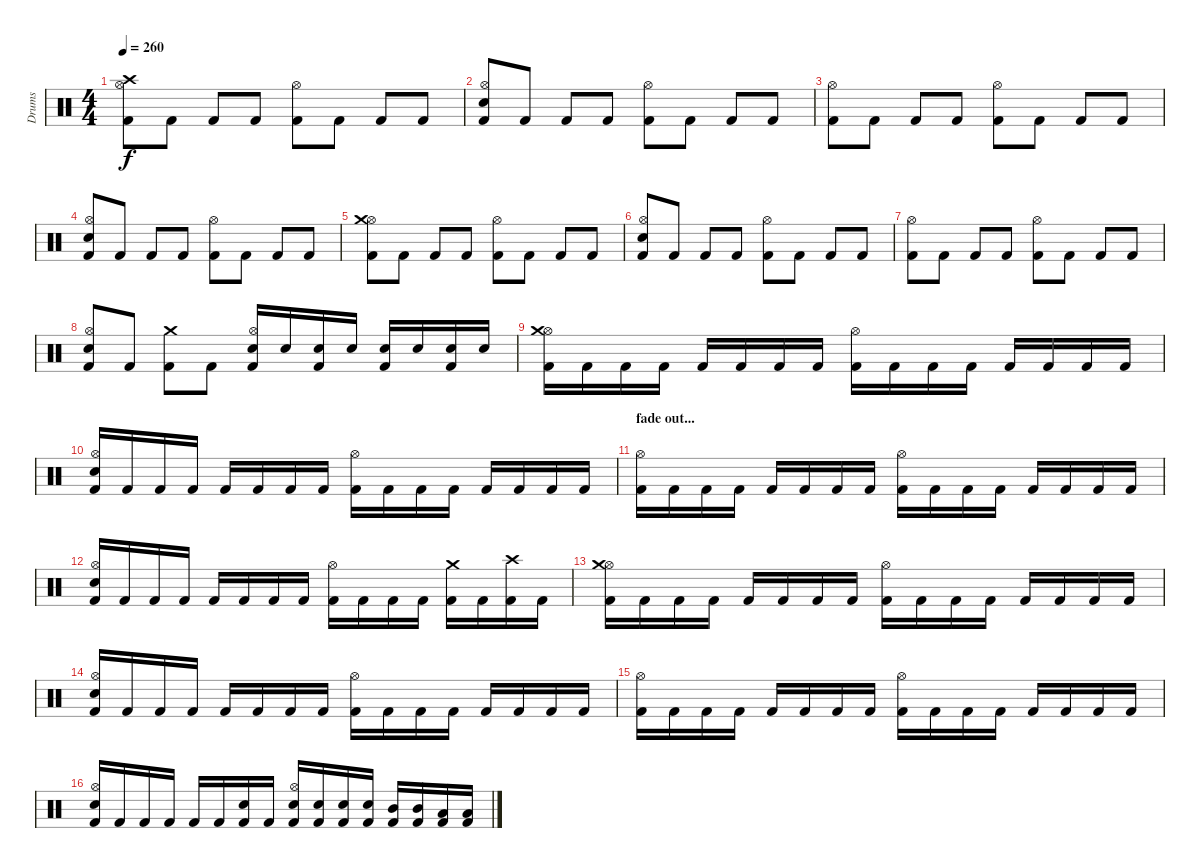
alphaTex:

\track ("Drums" "Drums") {instrument percussion}
\staff {score}
\articulation defaults
\ts (4 4)
\tempo 260
\clef neutral
\ks c
("Kick (hit) 2" "Hi-Hat (open)" "Crash high (hit)").8{dy f} "Kick (hit) 2".8 "Kick (hit) 2".8 "Kick (hit) 2".8 ("Kick (hit) 2" "Hi-Hat (open)").8 "Kick (hit) 2".8 "Kick (hit) 2".8 "Kick (hit) 2".8 |
("Kick (hit) 2" "Electric Snare (hit)" "Hi-Hat (open)").8 "Kick (hit) 2".8 "Kick (hit) 2".8 "Kick (hit) 2".8 ("Kick (hit) 2" "Hi-Hat (open)").8 "Kick (hit) 2".8 "Kick (hit) 2".8 "Kick (hit) 2".8 |
("Kick (hit) 2" "Hi-Hat (open)").8 "Kick (hit) 2".8 "Kick (hit) 2".8 "Kick (hit) 2".8 ("Kick (hit) 2" "Hi-Hat (open)").8 "Kick (hit) 2".8 "Kick (hit) 2".8 "Kick (hit) 2".8 |
("Kick (hit) 2" "Electric Snare (hit)" "Hi-Hat (open)").8 "Kick (hit) 2".8 "Kick (hit) 2".8 "Kick (hit) 2".8 ("Kick (hit) 2" "Hi-Hat (open)").8 "Kick (hit) 2".8 "Kick (hit) 2".8 "Kick (hit) 2".8 |
("Kick (hit) 2" "Hi-Hat (open)" "Crash medium (hit)").8 "Kick (hit) 2".8 "Kick (hit) 2".8 "Kick (hit) 2".8 ("Kick (hit) 2" "Hi-Hat (open)").8 "Kick (hit) 2".8 "Kick (hit) 2".8 "Kick (hit) 2".8 |
("Kick (hit) 2" "Electric Snare (hit)" "Hi-Hat (open)").8 "Kick (hit) 2".8 "Kick (hit) 2".8 "Kick (hit) 2".8 ("Kick (hit) 2" "Hi-Hat (open)").8 "Kick (hit) 2".8 "Kick (hit) 2".8 "Kick (hit) 2".8 |
("Kick (hit) 2" "Hi-Hat (open)").8 "Kick (hit) 2".8 "Kick (hit) 2".8 "Kick (hit) 2".8 ("Kick (hit) 2" "Hi-Hat (open)").8 "Kick (hit) 2".8 "Kick (hit) 2".8 "Kick (hit) 2".8 |
("Kick (hit) 2" "Electric Snare (hit)" "Hi-Hat (open)").8 "Kick (hit) 2".8 ("Kick (hit) 2" "Crash medium (hit)").8 "Kick (hit) 2".8 ("Kick (hit) 2" "Electric Snare (hit)" "Hi-Hat (open)").16 "Electric Snare (hit)".16 ("Kick (hit) 2" "Electric Snare (hit)").16 "Electric Snare (hit)".16 ("Kick (hit) 2" "Electric Snare (hit)").16 "Electric Snare (hit)".16 ("Kick (hit) 2" "Electric Snare (hit)").16 "Electric Snare (hit)".16 |
("Kick (hit) 2" "Hi-Hat (open)" "Crash medium (hit)").16 "Kick (hit) 2".16 "Kick (hit) 2".16 "Kick (hit) 2".16 "Kick (hit) 2".16 "Kick (hit) 2".16 "Kick (hit) 2".16 "Kick (hit) 2".16 ("Kick (hit) 2" "Hi-Hat (open)").16 "Kick (hit) 2".16 "Kick (hit) 2".16 "Kick (hit) 2".16 "Kick (hit) 2".16 "Kick (hit) 2".16 "Kick (hit) 2".16 "Kick (hit) 2".16 |
("Kick (hit) 2" "Electric Snare (hit)" "Hi-Hat (open)").16 "Kick (hit) 2".16 "Kick (hit) 2".16 "Kick (hit) 2".16 "Kick (hit) 2".16 "Kick (hit) 2".16 "Kick (hit) 2".16 "Kick (hit) 2".16 ("Kick (hit) 2" "Hi-Hat (open)").16 "Kick (hit) 2".16 "Kick (hit) 2".16 "Kick (hit) 2".16 "Kick (hit) 2".16 "Kick (hit) 2".16 "Kick (hit) 2".16 "Kick (hit) 2".16 |
\section ("" "fade out...")
("Kick (hit) 2" "Hi-Hat (open)").16 "Kick (hit) 2".16 "Kick (hit) 2".16 "Kick (hit) 2".16 "Kick (hit) 2".16 "Kick (hit) 2".16 "Kick (hit) 2".16 "Kick (hit) 2".16 ("Kick (hit) 2" "Hi-Hat (open)").16 "Kick (hit) 2".16 "Kick (hit) 2".16 "Kick (hit) 2".16 "Kick (hit) 2".16 "Kick (hit) 2".16 "Kick (hit) 2".16 "Kick (hit) 2".16 |
("Kick (hit) 2" "Electric Snare (hit)" "Hi-Hat (open)").16 "Kick (hit) 2".16 "Kick (hit) 2".16 "Kick (hit) 2".16 "Kick (hit) 2".16 "Kick (hit) 2".16 "Kick (hit) 2".16 "Kick (hit) 2".16 ("Kick (hit) 2" "Hi-Hat (open)").16 "Kick (hit) 2".16 "Kick (hit) 2".16 "Kick (hit) 2".16 ("Kick (hit) 2" "Crash medium (hit)").16 "Kick (hit) 2".16 ("Kick (hit) 2" "Crash high (hit)").16 "Kick (hit) 2".16 |
("Kick (hit) 2" "Hi-Hat (open)" "Crash medium (hit)").16 "Kick (hit) 2".16 "Kick (hit) 2".16 "Kick (hit) 2".16 "Kick (hit) 2".16 "Kick (hit) 2".16 "Kick (hit) 2".16 "Kick (hit) 2".16 ("Kick (hit) 2" "Hi-Hat (open)").16 "Kick (hit) 2".16 "Kick (hit) 2".16 "Kick (hit) 2".16 "Kick (hit) 2".16 "Kick (hit) 2".16 "Kick (hit) 2".16 "Kick (hit) 2".16 |
("Kick (hit) 2" "Electric Snare (hit)" "Hi-Hat (open)").16 "Kick (hit) 2".16 "Kick (hit) 2".16 "Kick (hit) 2".16 "Kick (hit) 2".16 "Kick (hit) 2".16 "Kick (hit) 2".16 "Kick (hit) 2".16 ("Kick (hit) 2" "Hi-Hat (open)").16 "Kick (hit) 2".16 "Kick (hit) 2".16 "Kick (hit) 2".16 "Kick (hit) 2".16 "Kick (hit) 2".16 "Kick (hit) 2".16 "Kick (hit) 2".16 |
("Kick (hit) 2" "Hi-Hat (open)").16 "Kick (hit) 2".16 "Kick (hit) 2".16 "Kick (hit) 2".16 "Kick (hit) 2".16 "Kick (hit) 2".16 "Kick (hit) 2".16 "Kick (hit) 2".16 ("Kick (hit) 2" "Hi-Hat (open)").16 "Kick (hit) 2".16 "Kick (hit) 2".16 "Kick (hit) 2".16 "Kick (hit) 2".16 "Kick (hit) 2".16 "Kick (hit) 2".16 "Kick (hit) 2".16 |
("Kick (hit) 2" "Electric Snare (hit)" "Hi-Hat (open)").16 "Kick (hit) 2".16 "Kick (hit) 2".16 "Kick (hit) 2".16 "Kick (hit) 2".16 "Kick (hit) 2".16 ("Kick (hit) 2" "Electric Snare (hit)").16 "Kick (hit) 2".16 ("Kick (hit) 2" "Electric Snare (hit)" "Hi-Hat (open)").16 ("Kick (hit) 2" "Electric Snare (hit)").16 ("Kick (hit) 2" "Electric Snare (hit)").16 ("Kick (hit) 2" "Electric Snare (hit)").16 ("Kick (hit) 2" "Mid Tom (hit)").16 ("Kick (hit) 2" "Mid Tom (hit)").16 ("Kick (hit) 2" "Low Tom (hit)").16 ("Kick (hit) 2" "Low Tom (hit)").16
